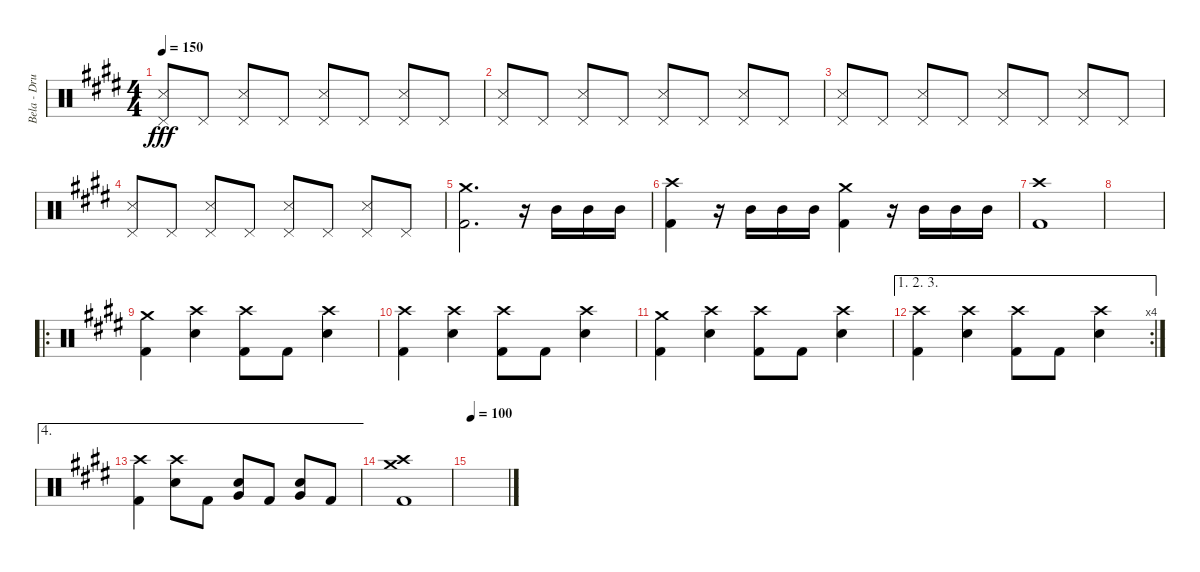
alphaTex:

\track ("Bela - Drums" "Bela - Dru") {instrument percussion}
\staff {score}
\articulation defaults
\ts (4 4)
\tempo 150
\clef neutral
\ks e
("Snare (side stick) 3" "Pedal Hi-Hat (hit)").8{dy fff} "Pedal Hi-Hat (hit)".8 ("Snare (side stick) 3" "Pedal Hi-Hat (hit)").8 "Pedal Hi-Hat (hit)".8 ("Snare (side stick) 3" "Pedal Hi-Hat (hit)").8 "Pedal Hi-Hat (hit)".8 ("Snare (side stick) 3" "Pedal Hi-Hat (hit)").8 "Pedal Hi-Hat (hit)".8 |
("Snare (side stick) 3" "Pedal Hi-Hat (hit)").8 "Pedal Hi-Hat (hit)".8 ("Snare (side stick) 3" "Pedal Hi-Hat (hit)").8 "Pedal Hi-Hat (hit)".8 ("Snare (side stick) 3" "Pedal Hi-Hat (hit)").8 "Pedal Hi-Hat (hit)".8 ("Snare (side stick) 3" "Pedal Hi-Hat (hit)").8 "Pedal Hi-Hat (hit)".8 |
("Snare (side stick) 3" "Pedal Hi-Hat (hit)").8 "Pedal Hi-Hat (hit)".8 ("Snare (side stick) 3" "Pedal Hi-Hat (hit)").8 "Pedal Hi-Hat (hit)".8 ("Snare (side stick) 3" "Pedal Hi-Hat (hit)").8 "Pedal Hi-Hat (hit)".8 ("Snare (side stick) 3" "Pedal Hi-Hat (hit)").8 "Pedal Hi-Hat (hit)".8 |
("Snare (side stick) 3" "Pedal Hi-Hat (hit)").8 "Pedal Hi-Hat (hit)".8 ("Snare (side stick) 3" "Pedal Hi-Hat (hit)").8 "Pedal Hi-Hat (hit)".8 ("Snare (side stick) 3" "Pedal Hi-Hat (hit)").8 "Pedal Hi-Hat (hit)".8 ("Snare (side stick) 3" "Pedal Hi-Hat (hit)").8 "Pedal Hi-Hat (hit)".8 |
("Crash medium (hit)" "Kick (hit) 2").2{d} r.16 "Mid Tom (hit)".16 "Mid Tom (hit)".16 "Mid Tom (hit)".16 |
("Crash high (hit)" "Kick (hit) 2").4 r.16 "Mid Tom (hit)".16 "Mid Tom (hit)".16 "Mid Tom (hit)".16 ("Crash medium (hit)" "Kick (hit) 2").4 r.16 "Mid Tom (hit)".16 "Mid Tom (hit)".16 "Mid Tom (hit)".16 |
("Crash high (hit)" "Kick (hit) 2").1 |
|
\ro
("Crash medium (hit)" "Kick (hit) 2").4 ("Crash high (hit)" "Electric Snare (hit)").4 ("Crash high (hit)" "Kick (hit) 2").8 "Kick (hit) 2".8 ("Crash high (hit)" "Electric Snare (hit)").4 |
("Crash high (hit)" "Kick (hit) 2").4 ("Crash high (hit)" "Electric Snare (hit)").4 ("Crash high (hit)" "Kick (hit) 2").8 "Kick (hit) 2".8 ("Crash high (hit)" "Electric Snare (hit)").4 |
("Crash medium (hit)" "Kick (hit) 2").4 ("Crash high (hit)" "Electric Snare (hit)").4 ("Crash high (hit)" "Kick (hit) 2").8 "Kick (hit) 2".8 ("Crash high (hit)" "Electric Snare (hit)").4 |
\ae (1 2 3)
\rc 4
("Crash high (hit)" "Kick (hit) 2").4 ("Crash high (hit)" "Electric Snare (hit)").4 ("Crash high (hit)" "Kick (hit) 2").8 "Kick (hit) 2".8 ("Crash high (hit)" "Electric Snare (hit)").4 |
\ae 4
("Crash high (hit)" "Kick (hit) 2").4 ("Crash high (hit)" "Electric Snare (hit)").8 "Kick (hit) 2".8 ("Electric Snare (hit)" "Very Low Tom (hit)").8 "Kick (hit) 2".8 ("Electric Snare (hit)" "Very Low Tom (hit)").8 "Kick (hit) 2".8 |
("Crash high (hit)" "Crash medium (hit)" "Kick (hit) 2").1 |
\tempo 100
